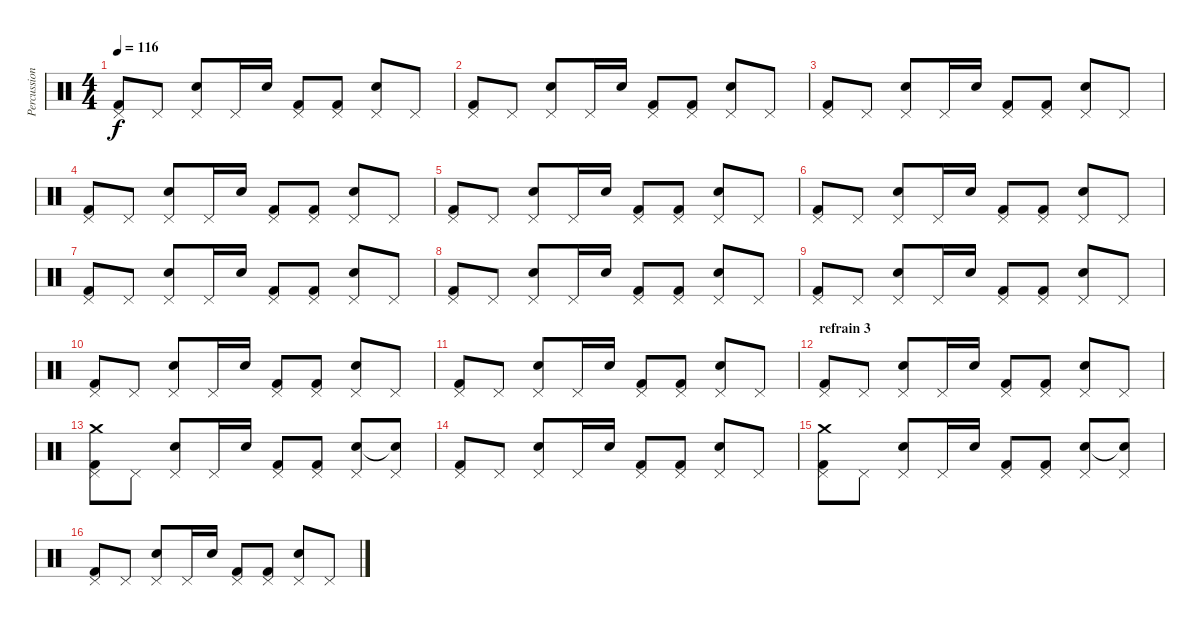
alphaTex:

\track ("Percussions" "Percussion") {instrument percussion}
\staff {score}
\articulation defaults
\ts (4 4)
\tempo 116
\clef neutral
\ks c
("Pedal Hi-Hat (hit)" "Kick (hit) 2").8{dy f} "Pedal Hi-Hat (hit)".8 ("Pedal Hi-Hat (hit)" "Electric Snare (hit)").8 "Pedal Hi-Hat (hit)".16 "Electric Snare (hit)".16 ("Pedal Hi-Hat (hit)" "Kick (hit) 2").8 ("Pedal Hi-Hat (hit)" "Kick (hit) 2").8 ("Pedal Hi-Hat (hit)" "Electric Snare (hit)").8 "Pedal Hi-Hat (hit)".8 |
("Pedal Hi-Hat (hit)" "Kick (hit) 2").8 "Pedal Hi-Hat (hit)".8 ("Pedal Hi-Hat (hit)" "Electric Snare (hit)").8 "Pedal Hi-Hat (hit)".16 "Electric Snare (hit)".16 ("Pedal Hi-Hat (hit)" "Kick (hit) 2").8 ("Pedal Hi-Hat (hit)" "Kick (hit) 2").8 ("Pedal Hi-Hat (hit)" "Electric Snare (hit)").8 "Pedal Hi-Hat (hit)".8 |
("Pedal Hi-Hat (hit)" "Kick (hit) 2").8 "Pedal Hi-Hat (hit)".8 ("Pedal Hi-Hat (hit)" "Electric Snare (hit)").8 "Pedal Hi-Hat (hit)".16 "Electric Snare (hit)".16 ("Pedal Hi-Hat (hit)" "Kick (hit) 2").8 ("Pedal Hi-Hat (hit)" "Kick (hit) 2").8 ("Pedal Hi-Hat (hit)" "Electric Snare (hit)").8 "Pedal Hi-Hat (hit)".8 |
("Pedal Hi-Hat (hit)" "Kick (hit) 2").8 "Pedal Hi-Hat (hit)".8 ("Pedal Hi-Hat (hit)" "Electric Snare (hit)").8 "Pedal Hi-Hat (hit)".16 "Electric Snare (hit)".16 ("Pedal Hi-Hat (hit)" "Kick (hit) 2").8 ("Pedal Hi-Hat (hit)" "Kick (hit) 2").8 ("Pedal Hi-Hat (hit)" "Electric Snare (hit)").8 "Pedal Hi-Hat (hit)".8 |
("Pedal Hi-Hat (hit)" "Kick (hit) 2").8 "Pedal Hi-Hat (hit)".8 ("Pedal Hi-Hat (hit)" "Electric Snare (hit)").8 "Pedal Hi-Hat (hit)".16 "Electric Snare (hit)".16 ("Pedal Hi-Hat (hit)" "Kick (hit) 2").8 ("Pedal Hi-Hat (hit)" "Kick (hit) 2").8 ("Pedal Hi-Hat (hit)" "Electric Snare (hit)").8 "Pedal Hi-Hat (hit)".8 |
("Pedal Hi-Hat (hit)" "Kick (hit) 2").8 "Pedal Hi-Hat (hit)".8 ("Pedal Hi-Hat (hit)" "Electric Snare (hit)").8 "Pedal Hi-Hat (hit)".16 "Electric Snare (hit)".16 ("Pedal Hi-Hat (hit)" "Kick (hit) 2").8 ("Pedal Hi-Hat (hit)" "Kick (hit) 2").8 ("Pedal Hi-Hat (hit)" "Electric Snare (hit)").8 "Pedal Hi-Hat (hit)".8 |
("Pedal Hi-Hat (hit)" "Kick (hit) 2").8 "Pedal Hi-Hat (hit)".8 ("Pedal Hi-Hat (hit)" "Electric Snare (hit)").8 "Pedal Hi-Hat (hit)".16 "Electric Snare (hit)".16 ("Pedal Hi-Hat (hit)" "Kick (hit) 2").8 ("Pedal Hi-Hat (hit)" "Kick (hit) 2").8 ("Pedal Hi-Hat (hit)" "Electric Snare (hit)").8 "Pedal Hi-Hat (hit)".8 |
("Pedal Hi-Hat (hit)" "Kick (hit) 2").8 "Pedal Hi-Hat (hit)".8 ("Pedal Hi-Hat (hit)" "Electric Snare (hit)").8 "Pedal Hi-Hat (hit)".16 "Electric Snare (hit)".16 ("Pedal Hi-Hat (hit)" "Kick (hit) 2").8 ("Pedal Hi-Hat (hit)" "Kick (hit) 2").8 ("Pedal Hi-Hat (hit)" "Electric Snare (hit)").8 "Pedal Hi-Hat (hit)".8 |
("Pedal Hi-Hat (hit)" "Kick (hit) 2").8 "Pedal Hi-Hat (hit)".8 ("Pedal Hi-Hat (hit)" "Electric Snare (hit)").8 "Pedal Hi-Hat (hit)".16 "Electric Snare (hit)".16 ("Pedal Hi-Hat (hit)" "Kick (hit) 2").8 ("Pedal Hi-Hat (hit)" "Kick (hit) 2").8 ("Pedal Hi-Hat (hit)" "Electric Snare (hit)").8 "Pedal Hi-Hat (hit)".8 |
("Pedal Hi-Hat (hit)" "Kick (hit) 2").8 "Pedal Hi-Hat (hit)".8 ("Pedal Hi-Hat (hit)" "Electric Snare (hit)").8 "Pedal Hi-Hat (hit)".16 "Electric Snare (hit)".16 ("Pedal Hi-Hat (hit)" "Kick (hit) 2").8 ("Pedal Hi-Hat (hit)" "Kick (hit) 2").8 ("Pedal Hi-Hat (hit)" "Electric Snare (hit)").8 "Pedal Hi-Hat (hit)".8 |
("Pedal Hi-Hat (hit)" "Kick (hit) 2").8 "Pedal Hi-Hat (hit)".8 ("Pedal Hi-Hat (hit)" "Electric Snare (hit)").8 "Pedal Hi-Hat (hit)".16 "Electric Snare (hit)".16 ("Pedal Hi-Hat (hit)" "Kick (hit) 2").8 ("Pedal Hi-Hat (hit)" "Kick (hit) 2").8 ("Pedal Hi-Hat (hit)" "Electric Snare (hit)").8 "Pedal Hi-Hat (hit)".8 |
\section ("" "refrain 3")
("Pedal Hi-Hat (hit)" "Kick (hit) 2").8 "Pedal Hi-Hat (hit)".8 ("Pedal Hi-Hat (hit)" "Electric Snare (hit)").8 "Pedal Hi-Hat (hit)".16 "Electric Snare (hit)".16 ("Pedal Hi-Hat (hit)" "Kick (hit) 2").8 ("Pedal Hi-Hat (hit)" "Kick (hit) 2").8 ("Pedal Hi-Hat (hit)" "Electric Snare (hit)").8 "Pedal Hi-Hat (hit)".8 |
("Pedal Hi-Hat (hit)" "Crash medium (hit)" "Kick (hit) 2").8 "Pedal Hi-Hat (hit)".8 ("Pedal Hi-Hat (hit)" "Electric Snare (hit)").8 "Pedal Hi-Hat (hit)".16 "Electric Snare (hit)".16 ("Pedal Hi-Hat (hit)" "Kick (hit) 2").8 ("Pedal Hi-Hat (hit)" "Kick (hit) 2").8 ("Pedal Hi-Hat (hit)" "Electric Snare (hit)").8 ("Pedal Hi-Hat (hit)" "Snare (hit)"{t}).8 |
("Pedal Hi-Hat (hit)" "Kick (hit) 2").8 "Pedal Hi-Hat (hit)".8 ("Pedal Hi-Hat (hit)" "Electric Snare (hit)").8 "Pedal Hi-Hat (hit)".16 "Electric Snare (hit)".16 ("Pedal Hi-Hat (hit)" "Kick (hit) 2").8 ("Pedal Hi-Hat (hit)" "Kick (hit) 2").8 ("Pedal Hi-Hat (hit)" "Electric Snare (hit)").8 "Pedal Hi-Hat (hit)".8 |
("Pedal Hi-Hat (hit)" "Crash medium (hit)" "Kick (hit) 2").8 "Pedal Hi-Hat (hit)".8 ("Pedal Hi-Hat (hit)" "Electric Snare (hit)").8 "Pedal Hi-Hat (hit)".16 "Electric Snare (hit)".16 ("Pedal Hi-Hat (hit)" "Kick (hit) 2").8 ("Pedal Hi-Hat (hit)" "Kick (hit) 2").8 ("Pedal Hi-Hat (hit)" "Electric Snare (hit)").8 ("Pedal Hi-Hat (hit)" "Snare (hit)"{t}).8 |
("Pedal Hi-Hat (hit)" "Kick (hit) 2").8 "Pedal Hi-Hat (hit)".8 ("Pedal Hi-Hat (hit)" "Electric Snare (hit)").8 "Pedal Hi-Hat (hit)".16 "Electric Snare (hit)".16 ("Pedal Hi-Hat (hit)" "Kick (hit) 2").8 ("Pedal Hi-Hat (hit)" "Kick (hit) 2").8 ("Pedal Hi-Hat (hit)" "Electric Snare (hit)").8 "Pedal Hi-Hat (hit)".8
